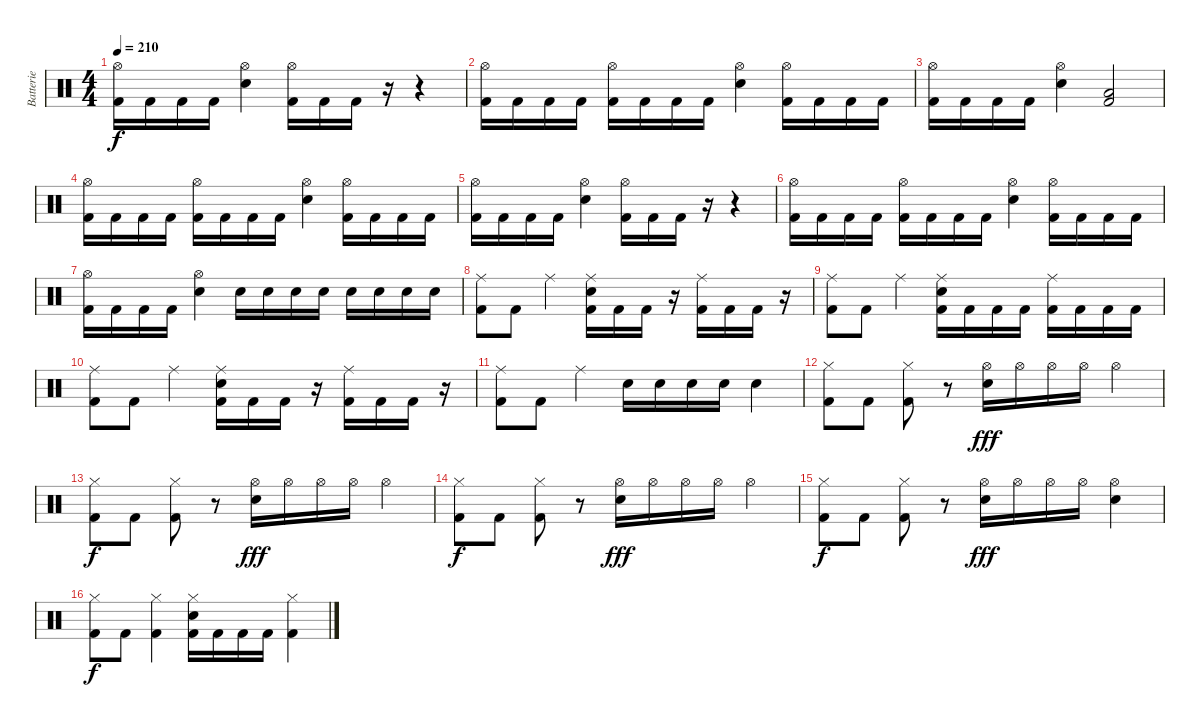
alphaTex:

\track ("Batterie" "Batterie") {instrument percussion}
\staff {score}
\articulation defaults
\ts (4 4)
\tempo 210
\clef neutral
\ks c
("Hi-Hat (open)" "Kick (hit) 2").16{dy f} "Kick (hit) 2".16 "Kick (hit) 2".16 "Kick (hit) 2".16 ("Hi-Hat (open)" "Electric Snare (hit)").4 ("Hi-Hat (open)" "Kick (hit) 2").16 "Kick (hit) 2".16 "Kick (hit) 2".16 r.16 r.4 |
("Hi-Hat (open)" "Kick (hit) 2").16 "Kick (hit) 2".16 "Kick (hit) 2".16 "Kick (hit) 2".16 ("Hi-Hat (open)" "Kick (hit) 2").16 "Kick (hit) 2".16 "Kick (hit) 2".16 "Kick (hit) 2".16 ("Hi-Hat (open)" "Electric Snare (hit)").4 ("Hi-Hat (open)" "Kick (hit) 2").16 "Kick (hit) 2".16 "Kick (hit) 2".16 "Kick (hit) 2".16 |
("Hi-Hat (open)" "Kick (hit) 2").16 "Kick (hit) 2".16 "Kick (hit) 2".16 "Kick (hit) 2".16 ("Hi-Hat (open)" "Electric Snare (hit)").4 ("Low Tom (hit)" "Kick (hit) 2").2 |
("Hi-Hat (open)" "Kick (hit) 2").16 "Kick (hit) 2".16 "Kick (hit) 2".16 "Kick (hit) 2".16 ("Hi-Hat (open)" "Kick (hit) 2").16 "Kick (hit) 2".16 "Kick (hit) 2".16 "Kick (hit) 2".16 ("Hi-Hat (open)" "Electric Snare (hit)").4 ("Hi-Hat (open)" "Kick (hit) 2").16 "Kick (hit) 2".16 "Kick (hit) 2".16 "Kick (hit) 2".16 |
("Hi-Hat (open)" "Kick (hit) 2").16 "Kick (hit) 2".16 "Kick (hit) 2".16 "Kick (hit) 2".16 ("Hi-Hat (open)" "Electric Snare (hit)").4 ("Hi-Hat (open)" "Kick (hit) 2").16 "Kick (hit) 2".16 "Kick (hit) 2".16 r.16 r.4 |
("Hi-Hat (open)" "Kick (hit) 2").16 "Kick (hit) 2".16 "Kick (hit) 2".16 "Kick (hit) 2".16 ("Hi-Hat (open)" "Kick (hit) 2").16 "Kick (hit) 2".16 "Kick (hit) 2".16 "Kick (hit) 2".16 ("Hi-Hat (open)" "Electric Snare (hit)").4 ("Hi-Hat (open)" "Kick (hit) 2").16 "Kick (hit) 2".16 "Kick (hit) 2".16 "Kick (hit) 2".16 |
("Hi-Hat (open)" "Kick (hit) 2").16 "Kick (hit) 2".16 "Kick (hit) 2".16 "Kick (hit) 2".16 ("Hi-Hat (open)" "Electric Snare (hit)").4 "Electric Snare (hit)".16 "Electric Snare (hit)".16 "Electric Snare (hit)".16 "Electric Snare (hit)".16 "Electric Snare (hit)".16 "Electric Snare (hit)".16 "Electric Snare (hit)".16 "Electric Snare (hit)".16 |
("Ride (middle)" "Kick (hit) 2").8 "Kick (hit) 2".8 "Ride (middle)".4 ("Ride (middle)" "Electric Snare (hit)" "Kick (hit) 2").16 "Kick (hit) 2".16 "Kick (hit) 2".16 r.16 ("Ride (middle)" "Kick (hit) 2").16 "Kick (hit) 2".16 "Kick (hit) 2".16 r.16 |
("Ride (middle)" "Kick (hit) 2").8 "Kick (hit) 2".8 "Ride (middle)".4 ("Ride (middle)" "Electric Snare (hit)" "Kick (hit) 2").16 "Kick (hit) 2".16 "Kick (hit) 2".16 "Kick (hit) 2".16 ("Ride (middle)" "Kick (hit) 2").16 "Kick (hit) 2".16 "Kick (hit) 2".16 "Kick (hit) 2".16 |
("Ride (middle)" "Kick (hit) 2").8 "Kick (hit) 2".8 "Ride (middle)".4 ("Ride (middle)" "Electric Snare (hit)" "Kick (hit) 2").16 "Kick (hit) 2".16 "Kick (hit) 2".16 r.16 ("Ride (middle)" "Kick (hit) 2").16 "Kick (hit) 2".16 "Kick (hit) 2".16 r.16 |
("Ride (middle)" "Kick (hit) 2").8 "Kick (hit) 2".8 "Ride (middle)".4 "Electric Snare (hit)".16 "Electric Snare (hit)".16 "Electric Snare (hit)".16 "Electric Snare (hit)".16 "Electric Snare (hit)".4 |
("Hi-Hat (closed)" "Kick (hit) 2").8 "Kick (hit) 2".8 ("Hi-Hat (closed)" "Kick (hit) 2").8 r.8 ("Hi-Hat (open)" "Electric Snare (hit)").16{dy fff} "Hi-Hat (open)".16 "Hi-Hat (open)".16 "Hi-Hat (open)".16 "Hi-Hat (open)".4 |
("Hi-Hat (closed)" "Kick (hit) 2").8{dy f} "Kick (hit) 2".8 ("Hi-Hat (closed)" "Kick (hit) 2").8 r.8 ("Hi-Hat (open)" "Electric Snare (hit)").16{dy fff} "Hi-Hat (open)".16 "Hi-Hat (open)".16 "Hi-Hat (open)".16 "Hi-Hat (open)".4 |
("Hi-Hat (closed)" "Kick (hit) 2").8{dy f} "Kick (hit) 2".8 ("Hi-Hat (closed)" "Kick (hit) 2").8 r.8 ("Hi-Hat (open)" "Electric Snare (hit)").16{dy fff} "Hi-Hat (open)".16 "Hi-Hat (open)".16 "Hi-Hat (open)".16 "Hi-Hat (open)".4 |
("Hi-Hat (closed)" "Kick (hit) 2").8{dy f} "Kick (hit) 2".8 ("Hi-Hat (closed)" "Kick (hit) 2").8 r.8 ("Hi-Hat (open)" "Electric Snare (hit)").16{dy fff} "Hi-Hat (open)".16 "Hi-Hat (open)".16 "Hi-Hat (open)".16 ("Hi-Hat (open)" "Electric Snare (hit)").4 |
("Hi-Hat (closed)" "Kick (hit) 2").8{dy f} "Kick (hit) 2".8 ("Hi-Hat (closed)" "Kick (hit) 2").4 ("Hi-Hat (closed)" "Electric Snare (hit)" "Kick (hit) 2").16 "Kick (hit) 2".16 "Kick (hit) 2".16 "Kick (hit) 2".16 ("Hi-Hat (closed)" "Kick (hit) 2").4
